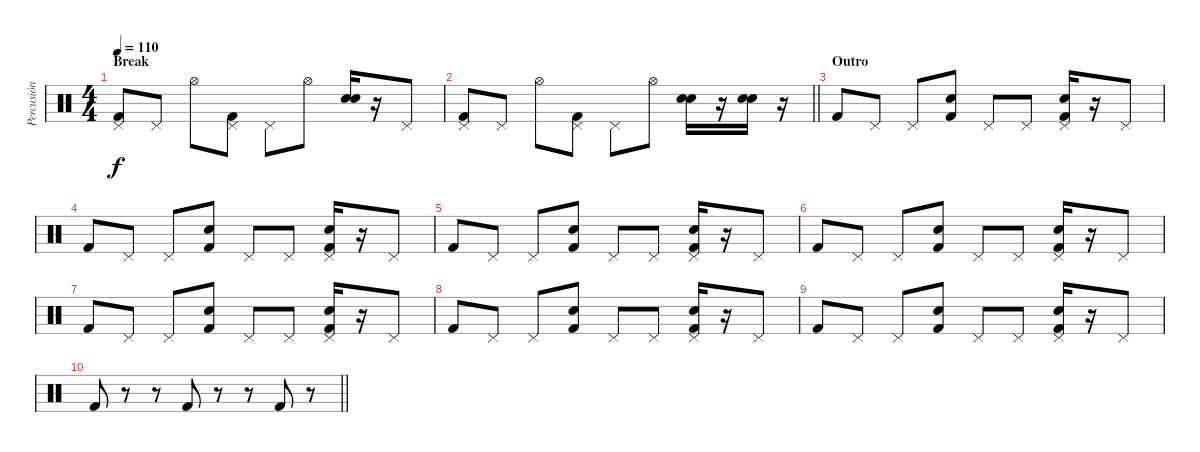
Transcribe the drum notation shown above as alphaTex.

\track ("Percusión" "Percusión") {instrument percussion}
\staff {score}
\articulation defaults
\ts (4 4)
\section ("" "Break")
\tempo 110
\clef neutral
\ks c
("Pedal Hi-Hat (hit)" "Kick (hit) 2").8{dy f} "Pedal Hi-Hat (hit)".8 "Hi-Hat (open)".8 ("Pedal Hi-Hat (hit)" "Kick (hit) 2").8 "Pedal Hi-Hat (hit)".8 "Hi-Hat (open)".8 ("Hand Clap (hit)" "Electric Snare (hit)").16{bd 60} r.16 "Pedal Hi-Hat (hit)".8 |
\barLineRight lightlight
("Pedal Hi-Hat (hit)" "Kick (hit) 2").8 "Pedal Hi-Hat (hit)".8 "Hi-Hat (open)".8 ("Pedal Hi-Hat (hit)" "Kick (hit) 2").8 "Pedal Hi-Hat (hit)".8 "Hi-Hat (open)".8 ("Hand Clap (hit)" "Electric Snare (hit)").16{bd 60} r.16 ("Hand Clap (hit)" "Electric Snare (hit)").16{bd 60} r.16 |
\section ("" "Outro")
"Kick (hit) 2".8 "Pedal Hi-Hat (hit)".8 "Pedal Hi-Hat (hit)".8 ("Electric Snare (hit)" "Kick (hit) 2").8 "Pedal Hi-Hat (hit)".8 "Pedal Hi-Hat (hit)".8 ("Hand Clap (hit)" "Pedal Hi-Hat (hit)" "Kick (hit) 2").16{bd 60} r.16 "Pedal Hi-Hat (hit)".8 |
"Kick (hit) 2".8 "Pedal Hi-Hat (hit)".8 "Pedal Hi-Hat (hit)".8 ("Electric Snare (hit)" "Kick (hit) 2").8 "Pedal Hi-Hat (hit)".8 "Pedal Hi-Hat (hit)".8 ("Hand Clap (hit)" "Pedal Hi-Hat (hit)" "Kick (hit) 2").16{bd 60} r.16 "Pedal Hi-Hat (hit)".8 |
"Kick (hit) 2".8 "Pedal Hi-Hat (hit)".8 "Pedal Hi-Hat (hit)".8 ("Electric Snare (hit)" "Kick (hit) 2").8 "Pedal Hi-Hat (hit)".8 "Pedal Hi-Hat (hit)".8 ("Hand Clap (hit)" "Pedal Hi-Hat (hit)" "Kick (hit) 2").16{bd 60} r.16 "Pedal Hi-Hat (hit)".8 |
"Kick (hit) 2".8 "Pedal Hi-Hat (hit)".8 "Pedal Hi-Hat (hit)".8 ("Electric Snare (hit)" "Kick (hit) 2").8 "Pedal Hi-Hat (hit)".8 "Pedal Hi-Hat (hit)".8 ("Hand Clap (hit)" "Pedal Hi-Hat (hit)" "Kick (hit) 2").16{bd 60} r.16 "Pedal Hi-Hat (hit)".8 |
"Kick (hit) 2".8 "Pedal Hi-Hat (hit)".8 "Pedal Hi-Hat (hit)".8 ("Electric Snare (hit)" "Kick (hit) 2").8 "Pedal Hi-Hat (hit)".8 "Pedal Hi-Hat (hit)".8 ("Hand Clap (hit)" "Pedal Hi-Hat (hit)" "Kick (hit) 2").16{bd 60} r.16 "Pedal Hi-Hat (hit)".8 |
"Kick (hit) 2".8 "Pedal Hi-Hat (hit)".8 "Pedal Hi-Hat (hit)".8 ("Electric Snare (hit)" "Kick (hit) 2").8 "Pedal Hi-Hat (hit)".8 "Pedal Hi-Hat (hit)".8 ("Hand Clap (hit)" "Pedal Hi-Hat (hit)" "Kick (hit) 2").16{bd 60} r.16 "Pedal Hi-Hat (hit)".8 |
"Kick (hit) 2".8 "Pedal Hi-Hat (hit)".8 "Pedal Hi-Hat (hit)".8 ("Electric Snare (hit)" "Kick (hit) 2").8 "Pedal Hi-Hat (hit)".8 "Pedal Hi-Hat (hit)".8 ("Hand Clap (hit)" "Pedal Hi-Hat (hit)" "Kick (hit) 2").16{bd 60} r.16 "Pedal Hi-Hat (hit)".8 |
\barLineRight lightlight "Kick (hit) 2".8
r.8 r.8 "Kick (hit) 2".8 r.8 r.8 "Kick (hit) 2".8 r.8
